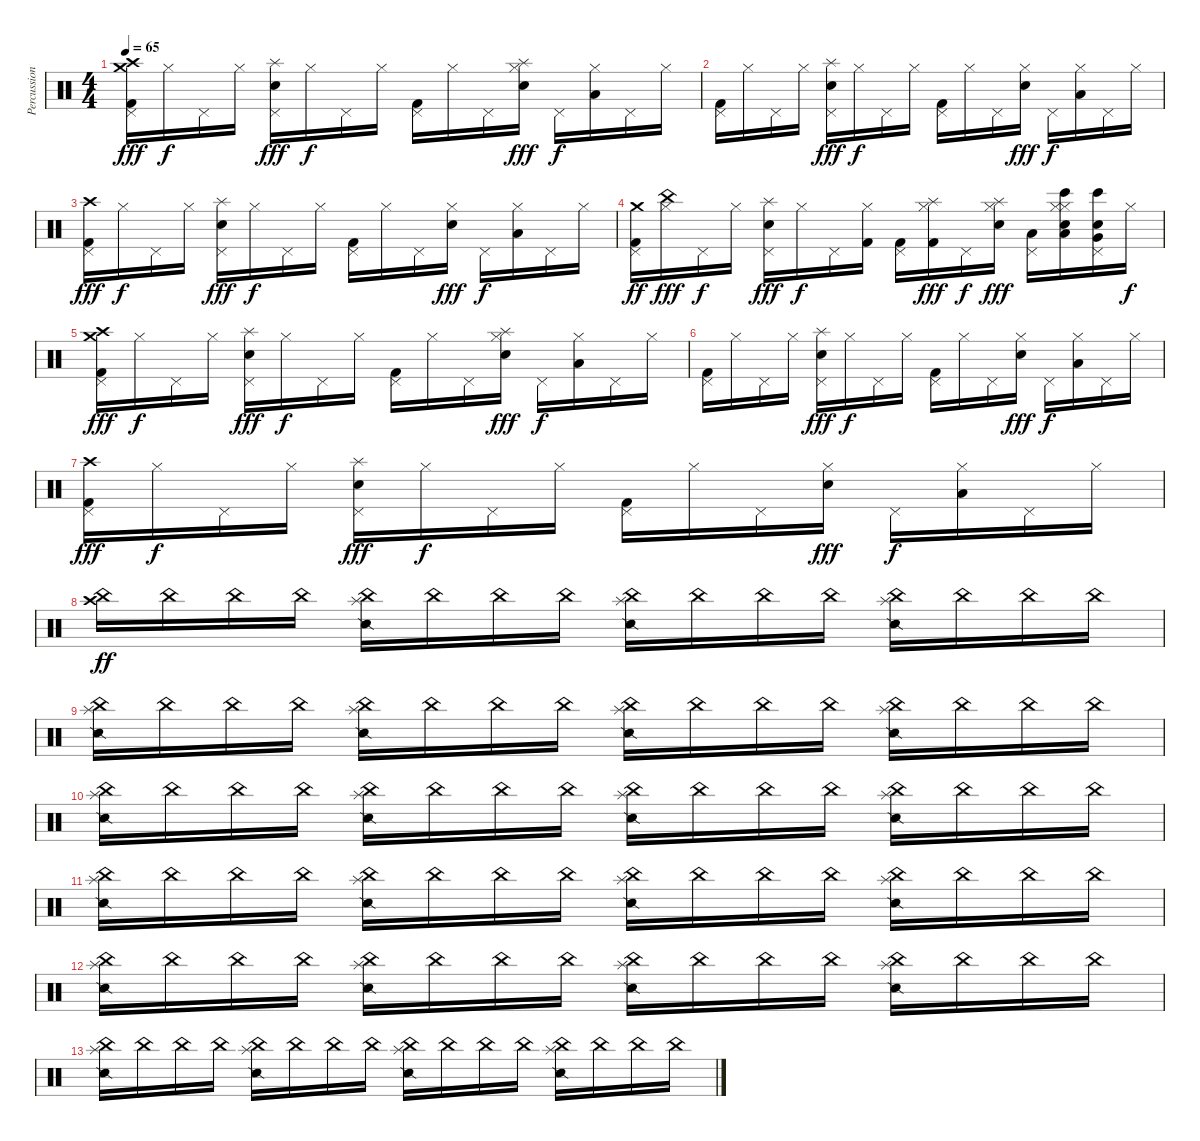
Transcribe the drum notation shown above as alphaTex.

\track ("Percussion" "Percussion") {instrument percussion}
\staff {score}
\articulation defaults
\ts (4 4)
\tempo 65
\clef neutral
\ks c
("Pedal Hi-Hat (hit)" "Kick (hit) 2" "Crash medium (hit)" "Crash high (hit)").16{dy fff} "Hi-Hat (closed)".16{dy f} "Pedal Hi-Hat (hit)".16 "Hi-Hat (closed)".16 ("Pedal Hi-Hat (hit)" "Electric Snare (hit)" "Splash (hit)").16{dy fff} "Hi-Hat (closed)".16{dy f} "Pedal Hi-Hat (hit)".16 "Hi-Hat (closed)".16 ("Pedal Hi-Hat (hit)" "Kick (hit) 2").16 "Hi-Hat (closed)".16 "Pedal Hi-Hat (hit)".16 ("Hi-Hat (closed)" "Splash (hit)" "Electric Snare (hit)").16{dy fff} "Pedal Hi-Hat (hit)".16{dy f} ("Hi-Hat (closed)" "Low Floor Tom (hit)").16 "Pedal Hi-Hat (hit)".16 "Hi-Hat (closed)".16 |
("Pedal Hi-Hat (hit)" "Kick (hit) 2").16 "Hi-Hat (closed)".16 "Pedal Hi-Hat (hit)".16 "Hi-Hat (closed)".16 ("Pedal Hi-Hat (hit)" "Electric Snare (hit)" "Splash (hit)").16{dy fff} "Hi-Hat (closed)".16{dy f} "Pedal Hi-Hat (hit)".16 "Hi-Hat (closed)".16 ("Pedal Hi-Hat (hit)" "Kick (hit) 2").16 "Hi-Hat (closed)".16 "Pedal Hi-Hat (hit)".16 ("Hi-Hat (closed)" "Electric Snare (hit)").16{dy fff} "Pedal Hi-Hat (hit)".16{dy f} ("Hi-Hat (closed)" "Low Floor Tom (hit)").16 "Pedal Hi-Hat (hit)".16 "Hi-Hat (closed)".16 |
("Pedal Hi-Hat (hit)" "Kick (hit) 2" "Crash high (hit)").16{dy fff} "Hi-Hat (closed)".16{dy f} "Pedal Hi-Hat (hit)".16 "Hi-Hat (closed)".16 ("Pedal Hi-Hat (hit)" "Electric Snare (hit)" "Splash (hit)").16{dy fff} "Hi-Hat (closed)".16{dy f} "Pedal Hi-Hat (hit)".16 "Hi-Hat (closed)".16 ("Pedal Hi-Hat (hit)" "Kick (hit) 2").16 "Hi-Hat (closed)".16 "Pedal Hi-Hat (hit)".16 ("Hi-Hat (closed)" "Electric Snare (hit)").16{dy fff} "Pedal Hi-Hat (hit)".16{dy f} ("Hi-Hat (closed)" "Low Floor Tom (hit)").16 "Pedal Hi-Hat (hit)".16 "Hi-Hat (closed)".16 |
("Pedal Hi-Hat (hit)" "Kick (hit) 2" "Crash medium (hit)").16{dy ff} ("Hi-Hat (closed)" "China (hit)").16{dy fff} "Pedal Hi-Hat (hit)".16{dy f} "Hi-Hat (closed)".16 ("Pedal Hi-Hat (hit)" "Electric Snare (hit)" "Splash (hit)").16{dy fff} "Hi-Hat (closed)".16{dy f} "Pedal Hi-Hat (hit)".16 ("Hi-Hat (closed)" "Kick (hit) 2").16 ("Pedal Hi-Hat (hit)" "Kick (hit) 2").16 ("Hi-Hat (closed)" "Kick (hit) 2" "Splash (hit)").16{dy fff} "Pedal Hi-Hat (hit)".16{dy f} ("Hi-Hat (closed)" "Splash (hit)" "Electric Snare (hit)").16{dy fff} ("Pedal Hi-Hat (hit)" "Low Floor Tom (hit)").16 ("Hi-Hat (closed)" "Hand Clap (hit)" "Low Tom (hit)" "Hi-Hat (closed)" "Bongo High (hit)").16 ("Pedal Hi-Hat (hit)" "Bongo High (hit)" "Very Low Tom (hit)" "Hand Clap (hit)").16 "Hi-Hat (closed)".16{dy f} |
("Pedal Hi-Hat (hit)" "Kick (hit) 2" "Crash medium (hit)" "Crash high (hit)").16{dy fff} "Hi-Hat (closed)".16{dy f} "Pedal Hi-Hat (hit)".16 "Hi-Hat (closed)".16 ("Pedal Hi-Hat (hit)" "Electric Snare (hit)" "Splash (hit)").16{dy fff} "Hi-Hat (closed)".16{dy f} "Pedal Hi-Hat (hit)".16 "Hi-Hat (closed)".16 ("Pedal Hi-Hat (hit)" "Kick (hit) 2").16 "Hi-Hat (closed)".16 "Pedal Hi-Hat (hit)".16 ("Hi-Hat (closed)" "Splash (hit)" "Electric Snare (hit)").16{dy fff} "Pedal Hi-Hat (hit)".16{dy f} ("Hi-Hat (closed)" "Low Floor Tom (hit)").16 "Pedal Hi-Hat (hit)".16 "Hi-Hat (closed)".16 |
("Pedal Hi-Hat (hit)" "Kick (hit) 2").16 "Hi-Hat (closed)".16 "Pedal Hi-Hat (hit)".16 "Hi-Hat (closed)".16 ("Pedal Hi-Hat (hit)" "Electric Snare (hit)" "Splash (hit)").16{dy fff} "Hi-Hat (closed)".16{dy f} "Pedal Hi-Hat (hit)".16 "Hi-Hat (closed)".16 ("Pedal Hi-Hat (hit)" "Kick (hit) 2").16 "Hi-Hat (closed)".16 "Pedal Hi-Hat (hit)".16 ("Hi-Hat (closed)" "Electric Snare (hit)").16{dy fff} "Pedal Hi-Hat (hit)".16{dy f} ("Hi-Hat (closed)" "Low Floor Tom (hit)").16 "Pedal Hi-Hat (hit)".16 "Hi-Hat (closed)".16 |
("Pedal Hi-Hat (hit)" "Kick (hit) 2" "Crash high (hit)").16{dy fff} "Hi-Hat (closed)".16{dy f} "Pedal Hi-Hat (hit)".16 "Hi-Hat (closed)".16 ("Pedal Hi-Hat (hit)" "Electric Snare (hit)" "Splash (hit)").16{dy fff} "Hi-Hat (closed)".16{dy f} "Pedal Hi-Hat (hit)".16 "Hi-Hat (closed)".16 ("Pedal Hi-Hat (hit)" "Kick (hit) 2").16 "Hi-Hat (closed)".16 "Pedal Hi-Hat (hit)".16 ("Hi-Hat (closed)" "Electric Snare (hit)").16{dy fff} "Pedal Hi-Hat (hit)".16{dy f} ("Hi-Hat (closed)" "Low Floor Tom (hit)").16 "Pedal Hi-Hat (hit)".16 "Hi-Hat (closed)".16 |
("China (hit)" "Crash high (hit)").16{dy ff} "China (hit)".16 "China (hit)".16 "China (hit)".16 ("China (hit)" "Snare (side stick) 2" "Splash (hit)").16 "China (hit)".16 "China (hit)".16 "China (hit)".16 ("China (hit)" "Snare (side stick) 2" "Splash (hit)").16 "China (hit)".16 "China (hit)".16 "China (hit)".16 ("China (hit)" "Snare (side stick) 2" "Splash (hit)").16 "China (hit)".16 "China (hit)".16 "China (hit)".16 |
("China (hit)" "Snare (side stick) 2" "Splash (hit)").16 "China (hit)".16 "China (hit)".16 "China (hit)".16 ("China (hit)" "Snare (side stick) 2" "Splash (hit)").16 "China (hit)".16 "China (hit)".16 "China (hit)".16 ("China (hit)" "Snare (side stick) 2" "Splash (hit)").16 "China (hit)".16 "China (hit)".16 "China (hit)".16 ("China (hit)" "Snare (side stick) 2" "Splash (hit)").16 "China (hit)".16 "China (hit)".16 "China (hit)".16 |
("China (hit)" "Snare (side stick) 2" "Splash (hit)").16{volume 0} "China (hit)".16 "China (hit)".16 "China (hit)".16 ("China (hit)" "Snare (side stick) 2" "Splash (hit)").16 "China (hit)".16 "China (hit)".16 "China (hit)".16 ("China (hit)" "Snare (side stick) 2" "Splash (hit)").16 "China (hit)".16 "China (hit)".16 "China (hit)".16 ("China (hit)" "Snare (side stick) 2" "Splash (hit)").16 "China (hit)".16 "China (hit)".16 "China (hit)".16 |
("China (hit)" "Snare (side stick) 2" "Splash (hit)").16 "China (hit)".16 "China (hit)".16 "China (hit)".16 ("China (hit)" "Snare (side stick) 2" "Splash (hit)").16 "China (hit)".16 "China (hit)".16 "China (hit)".16 ("China (hit)" "Snare (side stick) 2" "Splash (hit)").16 "China (hit)".16 "China (hit)".16 "China (hit)".16 ("China (hit)" "Snare (side stick) 2" "Splash (hit)").16 "China (hit)".16 "China (hit)".16 "China (hit)".16 |
("China (hit)" "Snare (side stick) 2" "Splash (hit)").16 "China (hit)".16 "China (hit)".16 "China (hit)".16 ("China (hit)" "Snare (side stick) 2" "Splash (hit)").16 "China (hit)".16 "China (hit)".16 "China (hit)".16 ("China (hit)" "Snare (side stick) 2" "Splash (hit)").16 "China (hit)".16 "China (hit)".16 "China (hit)".16 ("China (hit)" "Snare (side stick) 2" "Splash (hit)").16 "China (hit)".16 "China (hit)".16 "China (hit)".16 |
("China (hit)" "Snare (side stick) 2" "Splash (hit)").16 "China (hit)".16 "China (hit)".16 "China (hit)".16 ("China (hit)" "Snare (side stick) 2" "Splash (hit)").16 "China (hit)".16 "China (hit)".16 "China (hit)".16 ("China (hit)" "Snare (side stick) 2" "Splash (hit)").16 "China (hit)".16 "China (hit)".16 "China (hit)".16 ("China (hit)" "Snare (side stick) 2" "Splash (hit)").16 "China (hit)".16 "China (hit)".16 "China (hit)".16
